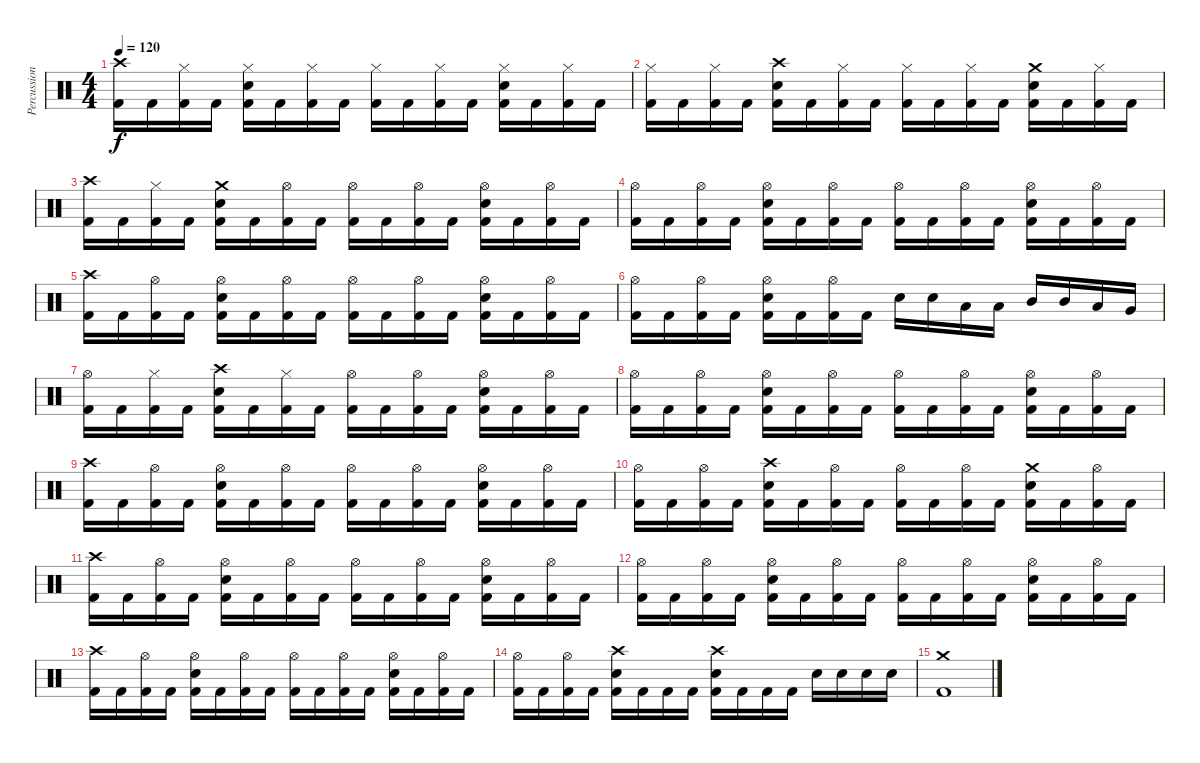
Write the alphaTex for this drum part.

\track ("Percussion" "Percussion") {instrument percussion}
\staff {score}
\articulation defaults
\ts (4 4)
\tempo 120
\clef neutral
\ks c
("Crash high (hit)" "Kick (hit) 2").16{dy f} "Kick (hit) 2".16 ("Hi-Hat (closed)" "Kick (hit) 2").16 "Kick (hit) 2".16 ("Hi-Hat (closed)" "Snare (hit) 2" "Kick (hit) 2").16 "Kick (hit) 2".16 ("Hi-Hat (closed)" "Kick (hit) 2").16 "Kick (hit) 2".16 ("Hi-Hat (closed)" "Kick (hit) 2").16 "Kick (hit) 2".16 ("Hi-Hat (closed)" "Kick (hit) 2").16 "Kick (hit) 2".16 ("Hi-Hat (closed)" "Snare (hit) 2" "Kick (hit) 2").16 "Kick (hit) 2".16 ("Hi-Hat (closed)" "Kick (hit) 2").16 "Kick (hit) 2".16 |
("Hi-Hat (closed)" "Kick (hit) 2").16 "Kick (hit) 2".16 ("Hi-Hat (closed)" "Kick (hit) 2").16 "Kick (hit) 2".16 ("Crash high (hit)" "Snare (hit) 2" "Kick (hit) 2").16 "Kick (hit) 2".16 ("Hi-Hat (closed)" "Kick (hit) 2").16 "Kick (hit) 2".16 ("Hi-Hat (closed)" "Kick (hit) 2").16 "Kick (hit) 2".16 ("Hi-Hat (closed)" "Kick (hit) 2").16 "Kick (hit) 2".16 ("Crash medium (hit)" "Snare (hit) 2" "Kick (hit) 2").16 "Kick (hit) 2".16 ("Hi-Hat (closed)" "Kick (hit) 2").16 "Kick (hit) 2".16 |
("Crash high (hit)" "Kick (hit) 2").16 "Kick (hit) 2".16 ("Hi-Hat (closed)" "Kick (hit) 2").16 "Kick (hit) 2".16 ("Crash medium (hit)" "Snare (hit) 2" "Kick (hit) 2").16 "Kick (hit) 2".16 ("Hi-Hat (open)" "Kick (hit) 2").16 "Kick (hit) 2".16 ("Hi-Hat (open)" "Kick (hit) 2").16 "Kick (hit) 2".16 ("Hi-Hat (open)" "Kick (hit) 2").16 "Kick (hit) 2".16 ("Hi-Hat (open)" "Snare (hit) 2" "Kick (hit) 2").16 "Kick (hit) 2".16 ("Hi-Hat (open)" "Kick (hit) 2").16 "Kick (hit) 2".16 |
("Hi-Hat (open)" "Kick (hit) 2").16 "Kick (hit) 2".16 ("Hi-Hat (open)" "Kick (hit) 2").16 "Kick (hit) 2".16 ("Hi-Hat (open)" "Snare (hit) 2" "Kick (hit) 2").16 "Kick (hit) 2".16 ("Hi-Hat (open)" "Kick (hit) 2").16 "Kick (hit) 2".16 ("Hi-Hat (open)" "Kick (hit) 2").16 "Kick (hit) 2".16 ("Hi-Hat (open)" "Kick (hit) 2").16 "Kick (hit) 2".16 ("Hi-Hat (open)" "Snare (hit) 2" "Kick (hit) 2").16 "Kick (hit) 2".16 ("Hi-Hat (open)" "Kick (hit) 2").16 "Kick (hit) 2".16 |
("Crash high (hit)" "Kick (hit) 2").16 "Kick (hit) 2".16 ("Hi-Hat (open)" "Kick (hit) 2").16 "Kick (hit) 2".16 ("Hi-Hat (open)" "Snare (hit) 2" "Kick (hit) 2").16 "Kick (hit) 2".16 ("Hi-Hat (open)" "Kick (hit) 2").16 "Kick (hit) 2".16 ("Hi-Hat (open)" "Kick (hit) 2").16 "Kick (hit) 2".16 ("Hi-Hat (open)" "Kick (hit) 2").16 "Kick (hit) 2".16 ("Hi-Hat (open)" "Snare (hit) 2" "Kick (hit) 2").16 "Kick (hit) 2".16 ("Hi-Hat (open)" "Kick (hit) 2").16 "Kick (hit) 2".16 |
("Hi-Hat (open)" "Kick (hit) 2").16 "Kick (hit) 2".16 ("Hi-Hat (open)" "Kick (hit) 2").16 "Kick (hit) 2".16 ("Hi-Hat (open)" "Snare (hit) 2" "Kick (hit) 2").16 "Kick (hit) 2".16 ("Hi-Hat (open)" "Kick (hit) 2").16 "Kick (hit) 2".16 "Snare (hit) 2".16 "Snare (hit) 2".16 "Low Tom (hit)".16 "Low Tom (hit)".16 "Mid Tom (hit)".16 "Mid Tom (hit)".16 "Low Tom (hit)".16 "Very Low Tom (hit)".16 |
("Hi-Hat (open)" "Kick (hit) 2").16 "Kick (hit) 2".16 ("Hi-Hat (closed)" "Kick (hit) 2").16 "Kick (hit) 2".16 ("Crash high (hit)" "Snare (hit) 2" "Kick (hit) 2").16 "Kick (hit) 2".16 ("Hi-Hat (closed)" "Kick (hit) 2").16 "Kick (hit) 2".16 ("Hi-Hat (open)" "Kick (hit) 2").16 "Kick (hit) 2".16 ("Hi-Hat (open)" "Kick (hit) 2").16 "Kick (hit) 2".16 ("Hi-Hat (open)" "Snare (hit) 2" "Kick (hit) 2").16 "Kick (hit) 2".16 ("Hi-Hat (open)" "Kick (hit) 2").16 "Kick (hit) 2".16 |
("Hi-Hat (open)" "Kick (hit) 2").16 "Kick (hit) 2".16 ("Hi-Hat (open)" "Kick (hit) 2").16 "Kick (hit) 2".16 ("Hi-Hat (open)" "Snare (hit) 2" "Kick (hit) 2").16 "Kick (hit) 2".16 ("Hi-Hat (open)" "Kick (hit) 2").16 "Kick (hit) 2".16 ("Hi-Hat (open)" "Kick (hit) 2").16 "Kick (hit) 2".16 ("Hi-Hat (open)" "Kick (hit) 2").16 "Kick (hit) 2".16 ("Hi-Hat (open)" "Snare (hit) 2" "Kick (hit) 2").16 "Kick (hit) 2".16 ("Hi-Hat (open)" "Kick (hit) 2").16 "Kick (hit) 2".16 |
("Crash high (hit)" "Kick (hit) 2").16 "Kick (hit) 2".16 ("Hi-Hat (open)" "Kick (hit) 2").16 "Kick (hit) 2".16 ("Hi-Hat (open)" "Snare (hit) 2" "Kick (hit) 2").16 "Kick (hit) 2".16 ("Hi-Hat (open)" "Kick (hit) 2").16 "Kick (hit) 2".16 ("Hi-Hat (open)" "Kick (hit) 2").16 "Kick (hit) 2".16 ("Hi-Hat (open)" "Kick (hit) 2").16 "Kick (hit) 2".16 ("Hi-Hat (open)" "Snare (hit) 2" "Kick (hit) 2").16 "Kick (hit) 2".16 ("Hi-Hat (open)" "Kick (hit) 2").16 "Kick (hit) 2".16 |
("Hi-Hat (open)" "Kick (hit) 2").16 "Kick (hit) 2".16 ("Hi-Hat (open)" "Kick (hit) 2").16 "Kick (hit) 2".16 ("Crash high (hit)" "Snare (hit) 2" "Kick (hit) 2").16 "Kick (hit) 2".16 ("Hi-Hat (open)" "Kick (hit) 2").16 "Kick (hit) 2".16 ("Hi-Hat (open)" "Kick (hit) 2").16 "Kick (hit) 2".16 ("Hi-Hat (open)" "Kick (hit) 2").16 "Kick (hit) 2".16 ("Crash medium (hit)" "Snare (hit) 2" "Kick (hit) 2").16 "Kick (hit) 2".16 ("Hi-Hat (open)" "Kick (hit) 2").16 "Kick (hit) 2".16 |
("Crash high (hit)" "Kick (hit) 2").16 "Kick (hit) 2".16 ("Hi-Hat (open)" "Kick (hit) 2").16 "Kick (hit) 2".16 ("Hi-Hat (open)" "Snare (hit) 2" "Kick (hit) 2").16 "Kick (hit) 2".16 ("Hi-Hat (open)" "Kick (hit) 2").16 "Kick (hit) 2".16 ("Hi-Hat (open)" "Kick (hit) 2").16 "Kick (hit) 2".16 ("Hi-Hat (open)" "Kick (hit) 2").16 "Kick (hit) 2".16 ("Hi-Hat (open)" "Snare (hit) 2" "Kick (hit) 2").16 "Kick (hit) 2".16 ("Hi-Hat (open)" "Kick (hit) 2").16 "Kick (hit) 2".16 |
("Hi-Hat (open)" "Kick (hit) 2").16 "Kick (hit) 2".16 ("Hi-Hat (open)" "Kick (hit) 2").16 "Kick (hit) 2".16 ("Hi-Hat (open)" "Snare (hit) 2" "Kick (hit) 2").16 "Kick (hit) 2".16 ("Hi-Hat (open)" "Kick (hit) 2").16 "Kick (hit) 2".16 ("Hi-Hat (open)" "Kick (hit) 2").16 "Kick (hit) 2".16 ("Hi-Hat (open)" "Kick (hit) 2").16 "Kick (hit) 2".16 ("Hi-Hat (open)" "Snare (hit) 2" "Kick (hit) 2").16 "Kick (hit) 2".16 ("Hi-Hat (open)" "Kick (hit) 2").16 "Kick (hit) 2".16 |
("Crash high (hit)" "Kick (hit) 2").16 "Kick (hit) 2".16 ("Hi-Hat (open)" "Kick (hit) 2").16 "Kick (hit) 2".16 ("Hi-Hat (open)" "Snare (hit) 2" "Kick (hit) 2").16 "Kick (hit) 2".16 ("Hi-Hat (open)" "Kick (hit) 2").16 "Kick (hit) 2".16 ("Hi-Hat (open)" "Kick (hit) 2").16 "Kick (hit) 2".16 ("Hi-Hat (open)" "Kick (hit) 2").16 "Kick (hit) 2".16 ("Hi-Hat (open)" "Snare (hit) 2" "Kick (hit) 2").16 "Kick (hit) 2".16 ("Hi-Hat (open)" "Kick (hit) 2").16 "Kick (hit) 2".16 |
("Hi-Hat (open)" "Kick (hit) 2").16 "Kick (hit) 2".16 ("Hi-Hat (open)" "Kick (hit) 2").16 "Kick (hit) 2".16 ("Crash high (hit)" "Snare (hit) 2" "Kick (hit) 2").16 "Kick (hit) 2".16 "Kick (hit) 2".16 "Kick (hit) 2".16 ("Crash high (hit)" "Snare (hit) 2" "Kick (hit) 2").16 "Kick (hit) 2".16 "Kick (hit) 2".16 "Kick (hit) 2".16 "Snare (hit) 2".16 "Snare (hit) 2".16 "Snare (hit) 2".16 "Snare (hit) 2".16 |
("Crash medium (hit)" "Kick (hit) 2").1
